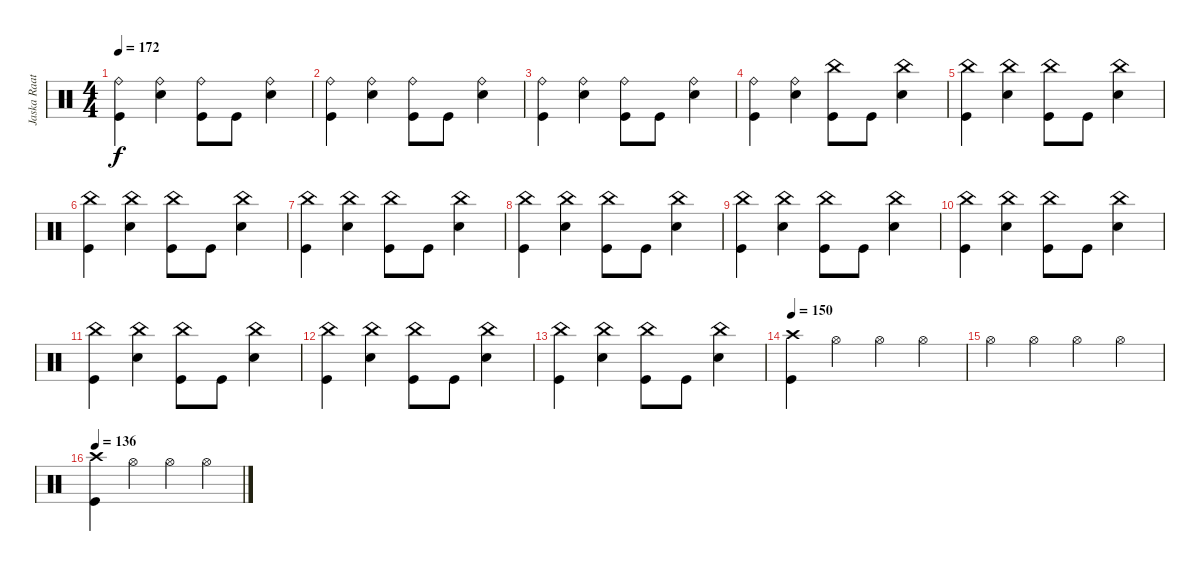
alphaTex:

\track ("Jaska Raatikainen" "Jaska Raat") {instrument percussion}
\staff {score}
\articulation defaults
\ts (4 4)
\tempo 172
\clef neutral
\ks c
("Ride (bell)" "Kick (hit)").4{dy f} ("Ride (bell)" "Snare (hit) 2").4 ("Ride (bell)" "Kick (hit)").8 "Kick (hit)".8 ("Ride (bell)" "Snare (hit) 2").4 |
("Ride (bell)" "Kick (hit)").4 ("Ride (bell)" "Snare (hit) 2").4 ("Ride (bell)" "Kick (hit)").8 "Kick (hit)".8 ("Ride (bell)" "Snare (hit) 2").4 |
("Ride (bell)" "Kick (hit)").4 ("Ride (bell)" "Snare (hit) 2").4 ("Ride (bell)" "Kick (hit)").8 "Kick (hit)".8 ("Ride (bell)" "Snare (hit) 2").4 |
("Ride (bell)" "Kick (hit)").4 ("Ride (bell)" "Snare (hit) 2").4 ("China (hit)" "Kick (hit)").8 "Kick (hit)".8 ("China (hit)" "Snare (hit) 2").4 |
("China (hit)" "Kick (hit)").4 ("China (hit)" "Snare (hit) 2").4 ("China (hit)" "Kick (hit)").8 "Kick (hit)".8 ("China (hit)" "Snare (hit) 2").4 |
("China (hit)" "Kick (hit)").4 ("China (hit)" "Snare (hit) 2").4 ("China (hit)" "Kick (hit)").8 "Kick (hit)".8 ("China (hit)" "Snare (hit) 2").4 |
("China (hit)" "Kick (hit)").4 ("China (hit)" "Snare (hit) 2").4 ("China (hit)" "Kick (hit)").8 "Kick (hit)".8 ("China (hit)" "Snare (hit) 2").4 |
("China (hit)" "Kick (hit)").4 ("China (hit)" "Snare (hit) 2").4 ("China (hit)" "Kick (hit)").8 "Kick (hit)".8 ("China (hit)" "Snare (hit) 2").4 |
("China (hit)" "Kick (hit)").4 ("China (hit)" "Snare (hit) 2").4 ("China (hit)" "Kick (hit)").8 "Kick (hit)".8 ("China (hit)" "Snare (hit) 2").4 |
("China (hit)" "Kick (hit)").4 ("China (hit)" "Snare (hit) 2").4 ("China (hit)" "Kick (hit)").8 "Kick (hit)".8 ("China (hit)" "Snare (hit) 2").4 |
("China (hit)" "Kick (hit)").4 ("China (hit)" "Snare (hit) 2").4 ("China (hit)" "Kick (hit)").8 "Kick (hit)".8 ("China (hit)" "Snare (hit) 2").4 |
("China (hit)" "Kick (hit)").4 ("China (hit)" "Snare (hit) 2").4 ("China (hit)" "Kick (hit)").8 "Kick (hit)".8 ("China (hit)" "Snare (hit) 2").4 |
("China (hit)" "Kick (hit)").4 ("China (hit)" "Snare (hit) 2").4 ("China (hit)" "Kick (hit)").8 "Kick (hit)".8 ("China (hit)" "Snare (hit) 2").4 |
\tempo 150
("Crash high (hit)" "Kick (hit)").4 "Hi-Hat (open)".4 "Hi-Hat (open)".4 "Hi-Hat (open)".4 |
"Hi-Hat (open)".4 "Hi-Hat (open)".4 "Hi-Hat (open)".4 "Hi-Hat (open)".4 |
\tempo 136
("Crash high (hit)" "Kick (hit)").4 "Hi-Hat (open)".4 "Hi-Hat (open)".4 "Hi-Hat (open)".4
